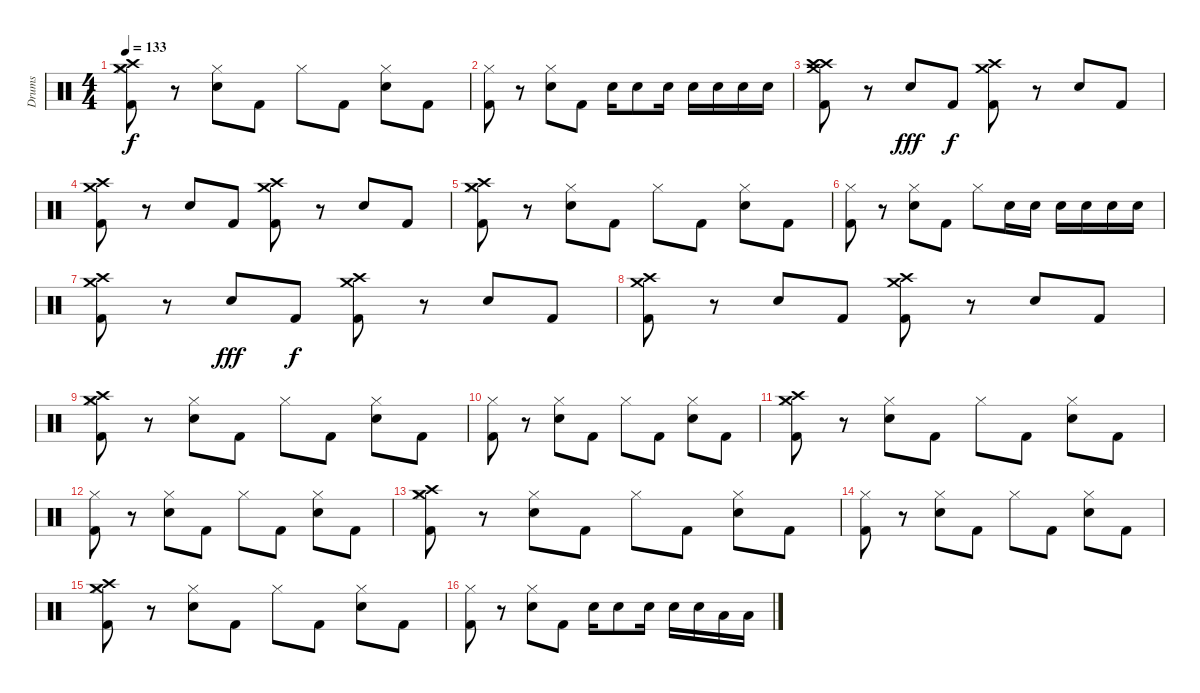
\track ("Drums" "Drums") {instrument percussion}
\staff {score}
\articulation defaults
\ts (4 4)
\tempo 133
\clef neutral
\ks c
("Crash high (hit)" "Crash medium (hit)" "Hi-Hat (closed)" "Kick (hit) 2").8{dy f} r.8 ("Hi-Hat (closed)" "Snare (hit) 2").8 "Kick (hit) 2".8 "Hi-Hat (closed)".8 "Kick (hit) 2".8 ("Hi-Hat (closed)" "Snare (hit) 2").8 "Kick (hit) 2".8 |
("Hi-Hat (closed)" "Kick (hit) 2").8 r.8 ("Hi-Hat (closed)" "Snare (hit) 2").8 "Kick (hit) 2".8 "Snare (hit) 2".16 "Snare (hit) 2".8 "Snare (hit) 2".16 "Snare (hit) 2".16 "Snare (hit) 2".16 "Snare (hit) 2".16 "Snare (hit) 2".16 |
("Crash high (hit)" "Crash high (hit)" "Crash medium (hit)" "Kick (hit) 2").8 r.8 "Snare (hit) 2".8{dy fff} "Kick (hit) 2".8{dy f} ("Crash high (hit)" "Crash medium (hit)" "Kick (hit) 2").8 r.8 "Snare (hit) 2".8 "Kick (hit) 2".8 |
("Crash high (hit)" "Crash medium (hit)" "Kick (hit) 2").8 r.8 "Snare (hit) 2".8 "Kick (hit) 2".8 ("Crash high (hit)" "Crash medium (hit)" "Kick (hit) 2").8 r.8 "Snare (hit) 2".8 "Kick (hit) 2".8 |
("Crash high (hit)" "Crash medium (hit)" "Hi-Hat (closed)" "Kick (hit) 2").8 r.8 ("Hi-Hat (closed)" "Snare (hit) 2").8 "Kick (hit) 2".8 "Hi-Hat (closed)".8 "Kick (hit) 2".8 ("Hi-Hat (closed)" "Snare (hit) 2").8 "Kick (hit) 2".8 |
("Hi-Hat (closed)" "Kick (hit) 2").8 r.8 ("Hi-Hat (closed)" "Snare (hit) 2").8 "Kick (hit) 2".8 "Hi-Hat (closed)".8 "Snare (hit) 2".16 "Snare (hit) 2".16 "Snare (hit) 2".16 "Snare (hit) 2".16 "Snare (hit) 2".16 "Snare (hit) 2".16 |
("Crash high (hit)" "Crash medium (hit)" "Kick (hit) 2").8 r.8 "Snare (hit) 2".8{dy fff} "Kick (hit) 2".8{dy f} ("Crash high (hit)" "Crash medium (hit)" "Kick (hit) 2").8 r.8 "Snare (hit) 2".8 "Kick (hit) 2".8 |
("Crash high (hit)" "Crash medium (hit)" "Kick (hit) 2").8 r.8 "Snare (hit) 2".8 "Kick (hit) 2".8 ("Crash high (hit)" "Crash medium (hit)" "Kick (hit) 2").8 r.8 "Snare (hit) 2".8 "Kick (hit) 2".8 |
("Crash high (hit)" "Crash medium (hit)" "Hi-Hat (closed)" "Kick (hit) 2").8 r.8 ("Hi-Hat (closed)" "Snare (hit) 2").8 "Kick (hit) 2".8 "Hi-Hat (closed)".8 "Kick (hit) 2".8 ("Hi-Hat (closed)" "Snare (hit) 2").8 "Kick (hit) 2".8 |
("Hi-Hat (closed)" "Kick (hit) 2").8 r.8 ("Hi-Hat (closed)" "Snare (hit) 2").8 "Kick (hit) 2".8 "Hi-Hat (closed)".8 "Kick (hit) 2".8 ("Hi-Hat (closed)" "Snare (hit) 2").8 "Kick (hit) 2".8 |
("Crash high (hit)" "Crash medium (hit)" "Hi-Hat (closed)" "Kick (hit) 2").8 r.8 ("Hi-Hat (closed)" "Snare (hit) 2").8 "Kick (hit) 2".8 "Hi-Hat (closed)".8 "Kick (hit) 2".8 ("Hi-Hat (closed)" "Snare (hit) 2").8 "Kick (hit) 2".8 |
("Hi-Hat (closed)" "Kick (hit) 2").8 r.8 ("Hi-Hat (closed)" "Snare (hit) 2").8 "Kick (hit) 2".8 "Hi-Hat (closed)".8 "Kick (hit) 2".8 ("Hi-Hat (closed)" "Snare (hit) 2").8 "Kick (hit) 2".8 |
("Crash high (hit)" "Crash medium (hit)" "Hi-Hat (closed)" "Kick (hit) 2").8 r.8 ("Hi-Hat (closed)" "Snare (hit) 2").8 "Kick (hit) 2".8 "Hi-Hat (closed)".8 "Kick (hit) 2".8 ("Hi-Hat (closed)" "Snare (hit) 2").8 "Kick (hit) 2".8 |
("Hi-Hat (closed)" "Kick (hit) 2").8 r.8 ("Hi-Hat (closed)" "Snare (hit) 2").8 "Kick (hit) 2".8 "Hi-Hat (closed)".8 "Kick (hit) 2".8 ("Hi-Hat (closed)" "Snare (hit) 2").8 "Kick (hit) 2".8 |
("Crash high (hit)" "Crash medium (hit)" "Hi-Hat (closed)" "Kick (hit) 2").8 r.8 ("Hi-Hat (closed)" "Snare (hit) 2").8 "Kick (hit) 2".8 "Hi-Hat (closed)".8 "Kick (hit) 2".8 ("Hi-Hat (closed)" "Snare (hit) 2").8 "Kick (hit) 2".8 |
("Hi-Hat (closed)" "Kick (hit) 2").8 r.8 ("Hi-Hat (closed)" "Snare (hit) 2").8 "Kick (hit) 2".8 "Snare (hit) 2".16 "Snare (hit) 2".8 "Snare (hit) 2".16 "Snare (hit) 2".16 "Snare (hit) 2".16 "Low Tom (hit)".16 "Low Tom (hit)".16
